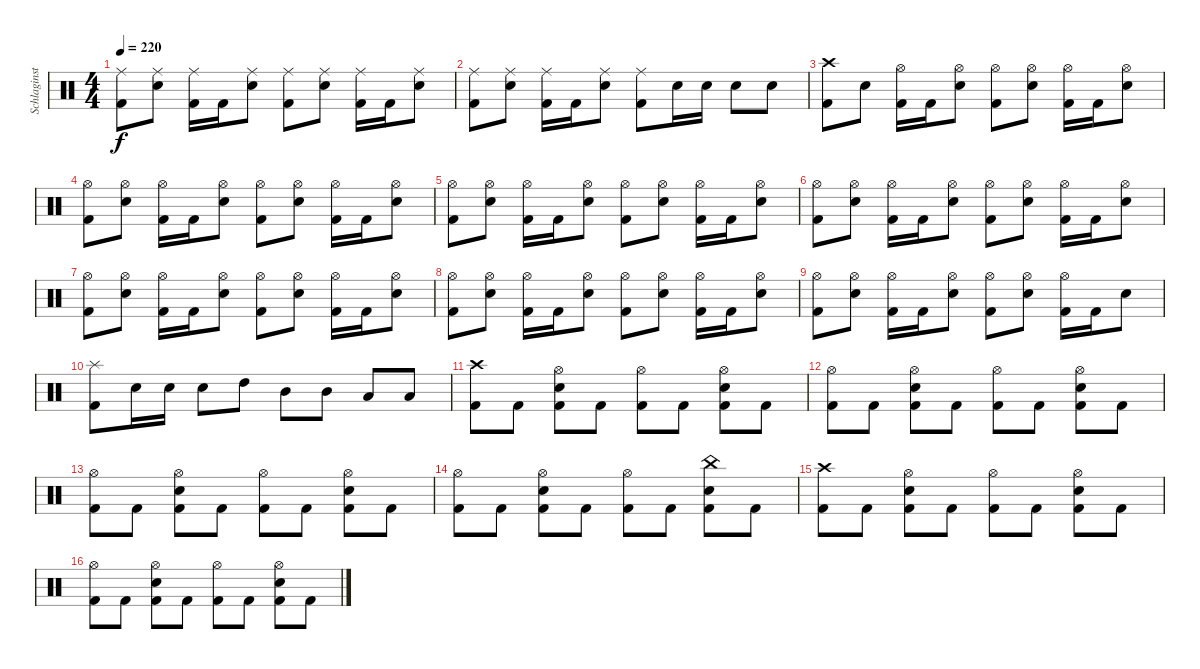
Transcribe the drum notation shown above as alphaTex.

\track ("Schlaginstrumente - Auswahl" "Schlaginst") {instrument percussion}
\staff {score}
\articulation defaults
\ts (4 4)
\tempo 220
\clef neutral
\ks c
("Ride (middle)" "Kick (hit) 2").8{dy f} ("Ride (middle)" "Snare (hit) 2").8 ("Ride (middle)" "Kick (hit) 2").16 "Kick (hit) 2".16 ("Ride (middle)" "Snare (hit) 2").8 ("Ride (middle)" "Kick (hit) 2").8 ("Ride (middle)" "Snare (hit) 2").8 ("Ride (middle)" "Kick (hit) 2").16 "Kick (hit) 2".16 ("Ride (middle)" "Snare (hit) 2").8 |
("Ride (middle)" "Kick (hit) 2").8 ("Ride (middle)" "Snare (hit) 2").8 ("Ride (middle)" "Kick (hit) 2").16 "Kick (hit) 2".16 ("Ride (middle)" "Snare (hit) 2").8 ("Ride (middle)" "Kick (hit) 2").8 "Snare (hit) 2".16 "Snare (hit) 2".16 "Snare (hit) 2".8 "Snare (hit) 2".8 |
("Crash high (hit)" "Kick (hit) 2").8 "Snare (hit) 2".8 ("Hi-Hat (open)" "Kick (hit) 2").16 "Kick (hit) 2".16 ("Hi-Hat (open)" "Snare (hit) 2").8 ("Hi-Hat (open)" "Kick (hit) 2").8 ("Hi-Hat (open)" "Snare (hit) 2").8 ("Hi-Hat (open)" "Kick (hit) 2").16 "Kick (hit) 2".16 ("Hi-Hat (open)" "Snare (hit) 2").8 |
("Hi-Hat (open)" "Kick (hit) 2").8 ("Hi-Hat (open)" "Snare (hit) 2").8 ("Hi-Hat (open)" "Kick (hit) 2").16 "Kick (hit) 2".16 ("Hi-Hat (open)" "Snare (hit) 2").8 ("Hi-Hat (open)" "Kick (hit) 2").8 ("Hi-Hat (open)" "Snare (hit) 2").8 ("Hi-Hat (open)" "Kick (hit) 2").16 "Kick (hit) 2".16 ("Hi-Hat (open)" "Snare (hit) 2").8 |
("Hi-Hat (open)" "Kick (hit) 2").8 ("Hi-Hat (open)" "Snare (hit) 2").8 ("Hi-Hat (open)" "Kick (hit) 2").16 "Kick (hit) 2".16 ("Hi-Hat (open)" "Snare (hit) 2").8 ("Hi-Hat (open)" "Kick (hit) 2").8 ("Hi-Hat (open)" "Snare (hit) 2").8 ("Hi-Hat (open)" "Kick (hit) 2").16 "Kick (hit) 2".16 ("Hi-Hat (open)" "Snare (hit) 2").8 |
("Hi-Hat (open)" "Kick (hit) 2").8 ("Hi-Hat (open)" "Snare (hit) 2").8 ("Hi-Hat (open)" "Kick (hit) 2").16 "Kick (hit) 2".16 ("Hi-Hat (open)" "Snare (hit) 2").8 ("Hi-Hat (open)" "Kick (hit) 2").8 ("Hi-Hat (open)" "Snare (hit) 2").8 ("Hi-Hat (open)" "Kick (hit) 2").16 "Kick (hit) 2".16 ("Hi-Hat (open)" "Snare (hit) 2").8 |
("Hi-Hat (open)" "Kick (hit) 2").8 ("Hi-Hat (open)" "Snare (hit) 2").8 ("Hi-Hat (open)" "Kick (hit) 2").16 "Kick (hit) 2".16 ("Hi-Hat (open)" "Snare (hit) 2").8 ("Hi-Hat (open)" "Kick (hit) 2").8 ("Hi-Hat (open)" "Snare (hit) 2").8 ("Hi-Hat (open)" "Kick (hit) 2").16 "Kick (hit) 2".16 ("Hi-Hat (open)" "Snare (hit) 2").8 |
("Hi-Hat (open)" "Kick (hit) 2").8 ("Hi-Hat (open)" "Snare (hit) 2").8 ("Hi-Hat (open)" "Kick (hit) 2").16 "Kick (hit) 2".16 ("Hi-Hat (open)" "Snare (hit) 2").8 ("Hi-Hat (open)" "Kick (hit) 2").8 ("Hi-Hat (open)" "Snare (hit) 2").8 ("Hi-Hat (open)" "Kick (hit) 2").16 "Kick (hit) 2".16 ("Hi-Hat (open)" "Snare (hit) 2").8 |
("Hi-Hat (open)" "Kick (hit) 2").8 ("Hi-Hat (open)" "Snare (hit) 2").8 ("Hi-Hat (open)" "Kick (hit) 2").16 "Kick (hit) 2".16 ("Hi-Hat (open)" "Snare (hit) 2").8 ("Hi-Hat (open)" "Kick (hit) 2").8 ("Hi-Hat (open)" "Snare (hit) 2").8 ("Hi-Hat (open)" "Kick (hit) 2").16 "Kick (hit) 2".16 "Snare (hit) 2".8 |
("Splash (hit)" "Kick (hit) 2").8 "Snare (hit) 2".16 "Snare (hit) 2".16 "Snare (hit) 2".8 "High Tom (hit)".8 "Mid Tom (hit)".8 "Mid Tom (hit)".8 "Low Tom (hit)".8 "Low Tom (hit)".8 |
("Crash high (hit)" "Kick (hit) 2").8 "Kick (hit) 2".8 ("Hi-Hat (open)" "Snare (hit) 2" "Kick (hit) 2").8 "Kick (hit) 2".8 ("Hi-Hat (open)" "Kick (hit) 2").8 "Kick (hit) 2".8 ("Hi-Hat (open)" "Snare (hit) 2" "Kick (hit) 2").8 "Kick (hit) 2".8 |
("Hi-Hat (open)" "Kick (hit) 2").8 "Kick (hit) 2".8 ("Hi-Hat (open)" "Snare (hit) 2" "Kick (hit) 2").8 "Kick (hit) 2".8 ("Hi-Hat (open)" "Kick (hit) 2").8 "Kick (hit) 2".8 ("Hi-Hat (open)" "Snare (hit) 2" "Kick (hit) 2").8 "Kick (hit) 2".8 |
("Hi-Hat (open)" "Kick (hit) 2").8 "Kick (hit) 2".8 ("Hi-Hat (open)" "Snare (hit) 2" "Kick (hit) 2").8 "Kick (hit) 2".8 ("Hi-Hat (open)" "Kick (hit) 2").8 "Kick (hit) 2".8 ("Hi-Hat (open)" "Snare (hit) 2" "Kick (hit) 2").8 "Kick (hit) 2".8 |
("Hi-Hat (open)" "Kick (hit) 2").8 "Kick (hit) 2".8 ("Hi-Hat (open)" "Snare (hit) 2" "Kick (hit) 2").8 "Kick (hit) 2".8 ("Hi-Hat (open)" "Kick (hit) 2").8 "Kick (hit) 2".8 ("China (hit)" "Snare (hit) 2" "Kick (hit) 2").8 "Kick (hit) 2".8 |
("Crash high (hit)" "Kick (hit) 2").8 "Kick (hit) 2".8 ("Hi-Hat (open)" "Snare (hit) 2" "Kick (hit) 2").8 "Kick (hit) 2".8 ("Hi-Hat (open)" "Kick (hit) 2").8 "Kick (hit) 2".8 ("Hi-Hat (open)" "Snare (hit) 2" "Kick (hit) 2").8 "Kick (hit) 2".8 |
("Hi-Hat (open)" "Kick (hit) 2").8 "Kick (hit) 2".8 ("Hi-Hat (open)" "Snare (hit) 2" "Kick (hit) 2").8 "Kick (hit) 2".8 ("Hi-Hat (open)" "Kick (hit) 2").8 "Kick (hit) 2".8 ("Hi-Hat (open)" "Snare (hit) 2" "Kick (hit) 2").8 "Kick (hit) 2".8
